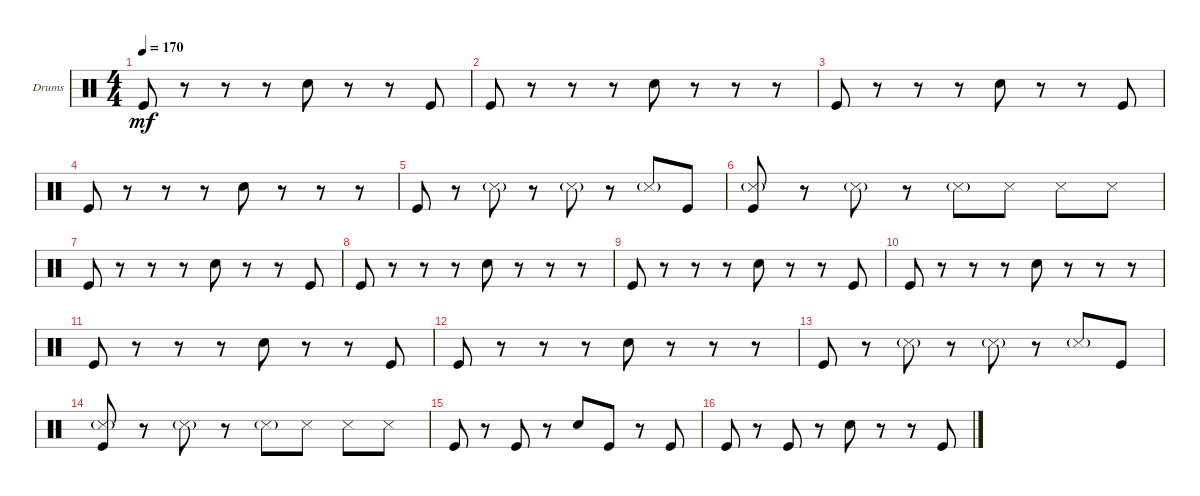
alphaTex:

\defaultSystemsLayout 4
\bracketExtendMode groupsimilarinstruments
\firstSystemTrackNameOrientation horizontal
\otherSystemsTrackNameOrientation horizontal
\track ("Drumkit" "Drums") {instrument percussion}
\staff {score}
\articulation defaults
\ts (4 4)
\tempo 170
\clef neutral
\ks c "Kick (hit)".8{dy mf}
r.8 r.8 r.8 "Snare (hit) 2".8 r.8 r.8 "Kick (hit)".8 |
"Kick (hit)".8 r.8 r.8 r.8 "Snare (hit) 2".8 r.8 r.8 r.8 |
"Kick (hit)".8 r.8 r.8 r.8 "Snare (hit) 2".8 r.8 r.8 "Kick (hit)".8 |
"Kick (hit)".8 r.8 r.8 r.8 "Snare (hit) 2".8 r.8 r.8 r.8 |
"Kick (hit)".8 r.8 "Snare (side stick) 3"{g}.8 r.8 "Snare (side stick) 3"{g}.8 r.8 "Snare (side stick) 3"{g}.8 "Kick (hit)".8 |
("Kick (hit)" "Snare (side stick) 3"{g}).8 r.8 "Snare (side stick) 3"{g}.8 r.8 "Snare (side stick) 3"{g}.8 "Snare (side stick) 3".8 "Snare (side stick) 3".8 "Snare (side stick) 3".8 |
"Kick (hit)".8 r.8 r.8 r.8 "Snare (hit) 2".8 r.8 r.8 "Kick (hit)".8 |
"Kick (hit)".8 r.8 r.8 r.8 "Snare (hit) 2".8 r.8 r.8 r.8 |
"Kick (hit)".8 r.8 r.8 r.8 "Snare (hit) 2".8 r.8 r.8 "Kick (hit)".8 |
"Kick (hit)".8 r.8 r.8 r.8 "Snare (hit) 2".8 r.8 r.8 r.8 |
"Kick (hit)".8 r.8 r.8 r.8 "Snare (hit) 2".8 r.8 r.8 "Kick (hit)".8 |
"Kick (hit)".8 r.8 r.8 r.8 "Snare (hit) 2".8 r.8 r.8 r.8 |
"Kick (hit)".8 r.8 "Snare (side stick) 3"{g}.8 r.8 "Snare (side stick) 3"{g}.8 r.8 "Snare (side stick) 3"{g}.8 "Kick (hit)".8 |
("Kick (hit)" "Snare (side stick) 3"{g}).8 r.8 "Snare (side stick) 3"{g}.8 r.8 "Snare (side stick) 3"{g}.8 "Snare (side stick) 3".8 "Snare (side stick) 3".8 "Snare (side stick) 3".8 |
"Kick (hit)".8 r.8 "Kick (hit)".8 r.8 "Snare (hit) 2".8 "Kick (hit)".8 r.8 "Kick (hit)".8 |
"Kick (hit)".8 r.8 "Kick (hit)".8 r.8 "Snare (hit) 2".8 r.8 r.8 "Kick (hit)".8
